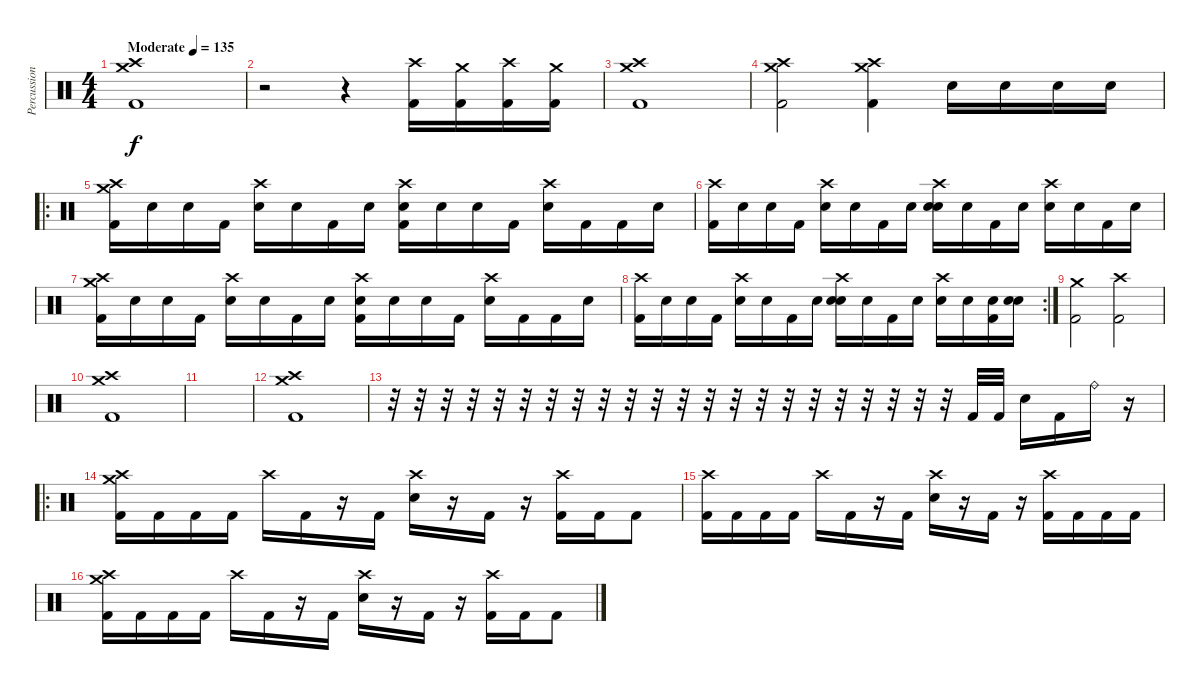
\track ("Percussion" "Percussion") {instrument percussion}
\staff {score}
\articulation defaults
\ts (4 4)
\tempo (135 "Moderate")
\clef neutral
\ks c
("Crash medium (hit)" "Crash high (hit)" "Kick (hit) 2").1{dy f} |
r.2 r.4 ("Crash high (hit)" "Kick (hit) 2").16 ("Crash medium (hit)" "Kick (hit) 2").16 ("Crash high (hit)" "Kick (hit) 2").16 ("Crash medium (hit)" "Kick (hit) 2").16 |
("Crash high (hit)" "Crash medium (hit)" "Kick (hit) 2").1 |
("Crash medium (hit)" "Kick (hit) 2" "Crash high (hit)").2 ("Crash medium (hit)" "Crash high (hit)" "Kick (hit) 2").4 "Snare (hit) 2".16 "Snare (hit) 2".16 "Snare (hit) 2".16 "Snare (hit) 2".16 |
\ro
("Crash high (hit)" "Crash medium (hit)" "Kick (hit) 2").16 "Snare (hit)".16 "Snare (hit)".16 "Kick (hit) 2".16 ("Crash high (hit)" "Snare (hit)").16 "Snare (hit)".16 "Kick (hit) 2".16 "Snare (hit)".16 ("Crash high (hit)" "Snare (hit) 2" "Kick (hit) 2").16 "Snare (hit)".16 "Snare (hit)".16 "Kick (hit) 2".16 ("Crash high (hit)" "Snare (hit)").16 "Kick (hit) 2".16 "Kick (hit) 2".16 "Snare (hit)".16 |
("Crash high (hit)" "Kick (hit) 2").16 "Snare (hit)".16 "Snare (hit)".16 "Kick (hit) 2".16 ("Crash high (hit)" "Snare (hit)").16 "Snare (hit)".16 "Kick (hit) 2".16 "Snare (hit)".16 ("Crash high (hit)" "Snare (hit) 2" "Snare (hit)").16 "Snare (hit)".16 "Kick (hit) 2".16 "Snare (hit)".16 ("Crash high (hit)" "Snare (hit)").16 "Snare (hit)".16 "Kick (hit) 2".16 "Snare (hit)".16 |
("Crash high (hit)" "Crash medium (hit)" "Kick (hit) 2").16 "Snare (hit)".16 "Snare (hit)".16 "Kick (hit) 2".16 ("Crash high (hit)" "Snare (hit)").16 "Snare (hit)".16 "Kick (hit) 2".16 "Snare (hit)".16 ("Crash high (hit)" "Snare (hit) 2" "Kick (hit) 2").16 "Snare (hit)".16 "Snare (hit)".16 "Kick (hit) 2".16 ("Crash high (hit)" "Snare (hit)").16 "Kick (hit) 2".16 "Kick (hit) 2".16 "Snare (hit)".16 |
\rc 2
("Crash high (hit)" "Kick (hit) 2").16 "Snare (hit)".16 "Snare (hit)".16 "Kick (hit) 2".16 ("Crash high (hit)" "Snare (hit)").16 "Snare (hit)".16 "Kick (hit) 2".16 "Snare (hit)".16 ("Crash high (hit)" "Snare (hit) 2" "Snare (hit)").16 "Snare (hit)".16 "Kick (hit) 2".16 "Snare (hit)".16 ("Crash high (hit)" "Snare (hit)").16 "Snare (hit)".16 ("Snare (hit) 2" "Kick (hit) 2").16 ("Snare (hit) 2" "Snare (hit)").16 |
("Crash medium (hit)" "Kick (hit) 2").2 ("Crash high (hit)" "Kick (hit) 2").2 |
("Crash high (hit)" "Crash medium (hit)" "Kick (hit) 2").1 |
|
("Crash high (hit)" "Crash medium (hit)" "Kick (hit) 2").1 |
r.32 r.32 r.32 r.32 r.32 r.32 r.32 r.32 r.32 r.32 r.32 r.32 r.32 r.32 r.32 r.32 r.32 r.32 r.32 r.32 r.32 r.32 "Kick (hit) 2".32 "Kick (hit) 2".32 "Snare (hit) 2".16 "Kick (hit) 2".16 "Ride (bell)".16 r.16 |
\ro
("Crash high (hit)" "Crash medium (hit)" "Kick (hit) 2").16 "Kick (hit) 2".16 "Kick (hit) 2".16 "Kick (hit) 2".16 "Crash high (hit)".16 "Kick (hit) 2".16 r.16 "Kick (hit) 2".16 ("Crash high (hit)" "Snare (hit) 2").16 r.16 "Kick (hit) 2".16 r.16 ("Crash high (hit)" "Kick (hit) 2").16 "Kick (hit) 2".16 "Kick (hit) 2".8 |
("Crash high (hit)" "Kick (hit) 2").16 "Kick (hit) 2".16 "Kick (hit) 2".16 "Kick (hit) 2".16 "Crash high (hit)".16 "Kick (hit) 2".16 r.16 "Kick (hit) 2".16 ("Crash high (hit)" "Snare (hit) 2").16 r.16 "Kick (hit) 2".16 r.16 ("Crash high (hit)" "Kick (hit) 2").16 "Kick (hit) 2".16 "Kick (hit) 2".16 "Kick (hit) 2".16 |
("Crash high (hit)" "Crash medium (hit)" "Kick (hit) 2").16 "Kick (hit) 2".16 "Kick (hit) 2".16 "Kick (hit) 2".16 "Crash high (hit)".16 "Kick (hit) 2".16 r.16 "Kick (hit) 2".16 ("Crash high (hit)" "Snare (hit) 2").16 r.16 "Kick (hit) 2".16 r.16 ("Crash high (hit)" "Kick (hit) 2").16 "Kick (hit) 2".16 "Kick (hit) 2".8
